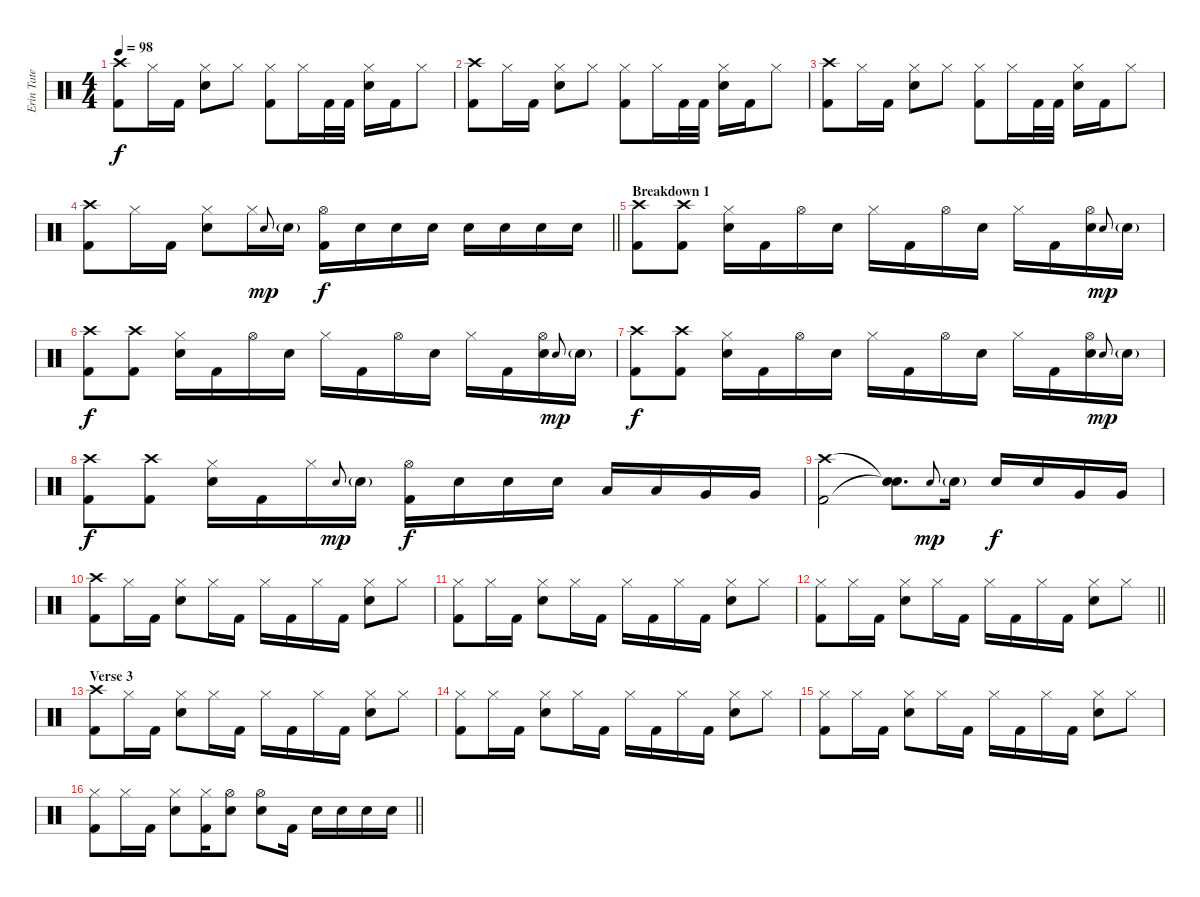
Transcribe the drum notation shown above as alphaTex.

\track ("Erin Tate" "Erin Tate") {instrument percussion}
\staff {score}
\articulation defaults
\ts (4 4)
\tempo 98
\clef neutral
\ks c
("Crash high (hit)" "Kick (hit) 2").8{dy f} "Hi-Hat (closed)".16 "Kick (hit) 2".16 ("Hi-Hat (closed)" "Electric Snare (hit)").8 "Hi-Hat (closed)".8 ("Hi-Hat (closed)" "Kick (hit) 2").8 "Hi-Hat (closed)".16 "Kick (hit) 2".32 "Kick (hit) 2".32 ("Hi-Hat (closed)" "Electric Snare (hit)").16 "Kick (hit) 2".16 "Hi-Hat (closed)".8 |
("Crash high (hit)" "Kick (hit) 2").8 "Hi-Hat (closed)".16 "Kick (hit) 2".16 ("Hi-Hat (closed)" "Electric Snare (hit)").8 "Hi-Hat (closed)".8 ("Hi-Hat (closed)" "Kick (hit) 2").8 "Hi-Hat (closed)".16 "Kick (hit) 2".32 "Kick (hit) 2".32 ("Hi-Hat (closed)" "Electric Snare (hit)").16 "Kick (hit) 2".16 "Hi-Hat (closed)".8 |
("Crash high (hit)" "Kick (hit) 2").8 "Hi-Hat (closed)".16 "Kick (hit) 2".16 ("Hi-Hat (closed)" "Electric Snare (hit)").8 "Hi-Hat (closed)".8 ("Hi-Hat (closed)" "Kick (hit) 2").8 "Hi-Hat (closed)".16 "Kick (hit) 2".32 "Kick (hit) 2".32 ("Hi-Hat (closed)" "Electric Snare (hit)").16 "Kick (hit) 2".16 "Hi-Hat (closed)".8 |
\barLineRight lightlight
("Crash high (hit)" "Kick (hit) 2").8 "Hi-Hat (closed)".16 "Kick (hit) 2".16 ("Hi-Hat (closed)" "Electric Snare (hit)").8 "Hi-Hat (closed)".16 "Electric Snare (hit)".8{gr onbeat dy mp} "Electric Snare (hit)"{g}.16 ("Hi-Hat (open)" "Kick (hit) 2").16{dy f} "Electric Snare (hit)".16 "Electric Snare (hit)".16 "Electric Snare (hit)".16 "Electric Snare (hit)".16 "Electric Snare (hit)".16 "Electric Snare (hit)".16 "Electric Snare (hit)".16 |
\section ("" "Breakdown 1")
("Crash high (hit)" "Kick (hit) 2").8 ("Crash high (hit)" "Kick (hit) 2").8 ("Hi-Hat (closed)" "Electric Snare (hit)").16 "Kick (hit) 2".16 "Hi-Hat (open)".16 "Electric Snare (hit)".16 "Hi-Hat (closed)".16 "Kick (hit) 2".16 "Hi-Hat (open)".16 "Electric Snare (hit)".16 "Hi-Hat (closed)".16 "Kick (hit) 2".16 ("Hi-Hat (open)" "Electric Snare (hit)").16 "Electric Snare (hit)".8{gr onbeat dy mp} "Electric Snare (hit)"{g}.16 |
("Crash high (hit)" "Kick (hit) 2").8{dy f} ("Crash high (hit)" "Kick (hit) 2").8 ("Hi-Hat (closed)" "Electric Snare (hit)").16 "Kick (hit) 2".16 "Hi-Hat (open)".16 "Electric Snare (hit)".16 "Hi-Hat (closed)".16 "Kick (hit) 2".16 "Hi-Hat (open)".16 "Electric Snare (hit)".16 "Hi-Hat (closed)".16 "Kick (hit) 2".16 ("Hi-Hat (open)" "Electric Snare (hit)").16 "Electric Snare (hit)".8{gr onbeat dy mp} "Electric Snare (hit)"{g}.16 |
("Crash high (hit)" "Kick (hit) 2").8{dy f} ("Crash high (hit)" "Kick (hit) 2").8 ("Hi-Hat (closed)" "Electric Snare (hit)").16 "Kick (hit) 2".16 "Hi-Hat (open)".16 "Electric Snare (hit)".16 "Hi-Hat (closed)".16 "Kick (hit) 2".16 "Hi-Hat (open)".16 "Electric Snare (hit)".16 "Hi-Hat (closed)".16 "Kick (hit) 2".16 ("Hi-Hat (open)" "Electric Snare (hit)").16 "Electric Snare (hit)".8{gr onbeat dy mp} "Electric Snare (hit)"{g}.16 |
("Crash high (hit)" "Kick (hit) 2").8{dy f} ("Crash high (hit)" "Kick (hit) 2").8 ("Hi-Hat (closed)" "Electric Snare (hit)").16 "Kick (hit) 2".16 "Hi-Hat (closed)".16 "Electric Snare (hit)".8{gr onbeat dy mp} "Electric Snare (hit)"{g}.16 ("Hi-Hat (open)" "Kick (hit) 2").16{dy f} "Electric Snare (hit)".16 "Electric Snare (hit)".16 "Electric Snare (hit)".16 "Low Tom (hit)".16 "Low Tom (hit)".16 "Very Low Tom (hit)".16 "Very Low Tom (hit)".16 |
("Crash high (hit)" "Kick (hit) 2").2 ("Snare (hit)"{t} "Snare (hit)"{t}).8{d} "Electric Snare (hit)".8{gr onbeat dy mp} "Electric Snare (hit)"{g}.16 "Electric Snare (hit)".16{dy f} "Electric Snare (hit)".16 "Very Low Tom (hit)".16 "Very Low Tom (hit)".16 |
("Crash high (hit)" "Kick (hit) 2").8 "Hi-Hat (closed)".16 "Kick (hit) 2".16 ("Hi-Hat (closed)" "Electric Snare (hit)").8 "Hi-Hat (closed)".16 "Kick (hit) 2".16 "Hi-Hat (closed)".16 "Kick (hit) 2".16 "Hi-Hat (closed)".16 "Kick (hit) 2".16 ("Hi-Hat (closed)" "Electric Snare (hit)").8 "Hi-Hat (closed)".8 |
("Hi-Hat (closed)" "Kick (hit) 2").8 "Hi-Hat (closed)".16 "Kick (hit) 2".16 ("Hi-Hat (closed)" "Electric Snare (hit)").8 "Hi-Hat (closed)".16 "Kick (hit) 2".16 "Hi-Hat (closed)".16 "Kick (hit) 2".16 "Hi-Hat (closed)".16 "Kick (hit) 2".16 ("Hi-Hat (closed)" "Electric Snare (hit)").8 "Hi-Hat (closed)".8 |
\barLineRight lightlight
("Hi-Hat (closed)" "Kick (hit) 2").8 "Hi-Hat (closed)".16 "Kick (hit) 2".16 ("Hi-Hat (closed)" "Electric Snare (hit)").8 "Hi-Hat (closed)".16 "Kick (hit) 2".16 "Hi-Hat (closed)".16 "Kick (hit) 2".16 "Hi-Hat (closed)".16 "Kick (hit) 2".16 ("Hi-Hat (closed)" "Electric Snare (hit)").8 "Hi-Hat (closed)".8 |
\section ("" "Verse 3")
("Crash high (hit)" "Kick (hit) 2").8 "Hi-Hat (closed)".16 "Kick (hit) 2".16 ("Hi-Hat (closed)" "Electric Snare (hit)").8 "Hi-Hat (closed)".16 "Kick (hit) 2".16 "Hi-Hat (closed)".16 "Kick (hit) 2".16 "Hi-Hat (closed)".16 "Kick (hit) 2".16 ("Hi-Hat (closed)" "Electric Snare (hit)").8 "Hi-Hat (closed)".8 |
("Hi-Hat (closed)" "Kick (hit) 2").8 "Hi-Hat (closed)".16 "Kick (hit) 2".16 ("Hi-Hat (closed)" "Electric Snare (hit)").8 "Hi-Hat (closed)".16 "Kick (hit) 2".16 "Hi-Hat (closed)".16 "Kick (hit) 2".16 "Hi-Hat (closed)".16 "Kick (hit) 2".16 ("Hi-Hat (closed)" "Electric Snare (hit)").8 "Hi-Hat (closed)".8 |
("Hi-Hat (closed)" "Kick (hit) 2").8 "Hi-Hat (closed)".16 "Kick (hit) 2".16 ("Hi-Hat (closed)" "Electric Snare (hit)").8 "Hi-Hat (closed)".16 "Kick (hit) 2".16 "Hi-Hat (closed)".16 "Kick (hit) 2".16 "Hi-Hat (closed)".16 "Kick (hit) 2".16 ("Hi-Hat (closed)" "Electric Snare (hit)").8 "Hi-Hat (closed)".8 |
\barLineRight lightlight
("Hi-Hat (closed)" "Kick (hit) 2").8 "Hi-Hat (closed)".16 "Kick (hit) 2".16 ("Hi-Hat (closed)" "Electric Snare (hit)").8 ("Hi-Hat (closed)" "Kick (hit) 2").16 ("Hi-Hat (open)" "Electric Snare (hit)").8 ("Hi-Hat (open)" "Electric Snare (hit)").8 "Kick (hit) 2".16 "Electric Snare (hit)".16 "Electric Snare (hit)".16 "Electric Snare (hit)".16 "Electric Snare (hit)".16
